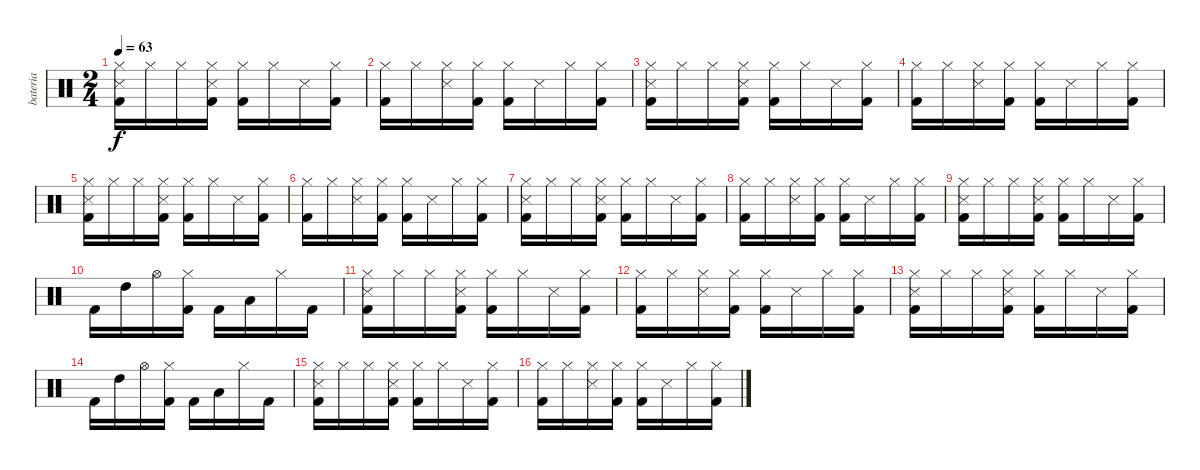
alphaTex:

\track ("bateria" "bateria") {instrument percussion}
\staff {score}
\articulation defaults
\ts (2 4)
\tempo 63
\clef neutral
\ks c
("Hi-Hat (closed)" "Snare (side stick) 3" "Kick (hit) 2").16{dy f} "Hi-Hat (closed)".16 "Hi-Hat (closed)".16 ("Hi-Hat (closed)" "Snare (side stick) 3" "Kick (hit) 2").16 ("Hi-Hat (closed)" "Kick (hit) 2").16 "Hi-Hat (closed)".16 "Snare (side stick) 3".16 ("Hi-Hat (closed)" "Kick (hit) 2").16 |
("Hi-Hat (closed)" "Kick (hit) 2").16 "Hi-Hat (closed)".16 ("Hi-Hat (closed)" "Snare (side stick) 3").16 ("Hi-Hat (closed)" "Kick (hit) 2").16 ("Hi-Hat (closed)" "Kick (hit) 2").16 "Snare (side stick) 3".16 "Hi-Hat (closed)".16 ("Hi-Hat (closed)" "Kick (hit) 2").16 |
("Hi-Hat (closed)" "Snare (side stick) 3" "Kick (hit) 2").16 "Hi-Hat (closed)".16 "Hi-Hat (closed)".16 ("Hi-Hat (closed)" "Snare (side stick) 3" "Kick (hit) 2").16 ("Hi-Hat (closed)" "Kick (hit) 2").16 "Hi-Hat (closed)".16 "Snare (side stick) 3".16 ("Hi-Hat (closed)" "Kick (hit) 2").16 |
("Hi-Hat (closed)" "Kick (hit) 2").16 "Hi-Hat (closed)".16 ("Hi-Hat (closed)" "Snare (side stick) 3").16 ("Hi-Hat (closed)" "Kick (hit) 2").16 ("Hi-Hat (closed)" "Kick (hit) 2").16 "Snare (side stick) 3".16 "Hi-Hat (closed)".16 ("Hi-Hat (closed)" "Kick (hit) 2").16 |
("Hi-Hat (closed)" "Snare (side stick) 3" "Kick (hit) 2").16 "Hi-Hat (closed)".16 "Hi-Hat (closed)".16 ("Hi-Hat (closed)" "Snare (side stick) 3" "Kick (hit) 2").16 ("Hi-Hat (closed)" "Kick (hit) 2").16 "Hi-Hat (closed)".16 "Snare (side stick) 3".16 ("Hi-Hat (closed)" "Kick (hit) 2").16 |
("Hi-Hat (closed)" "Kick (hit) 2").16 "Hi-Hat (closed)".16 ("Hi-Hat (closed)" "Snare (side stick) 3").16 ("Hi-Hat (closed)" "Kick (hit) 2").16 ("Hi-Hat (closed)" "Kick (hit) 2").16 "Snare (side stick) 3".16 "Hi-Hat (closed)".16 ("Hi-Hat (closed)" "Kick (hit) 2").16 |
("Hi-Hat (closed)" "Snare (side stick) 3" "Kick (hit) 2").16 "Hi-Hat (closed)".16 "Hi-Hat (closed)".16 ("Hi-Hat (closed)" "Snare (side stick) 3" "Kick (hit) 2").16 ("Hi-Hat (closed)" "Kick (hit) 2").16 "Hi-Hat (closed)".16 "Snare (side stick) 3".16 ("Hi-Hat (closed)" "Kick (hit) 2").16 |
("Hi-Hat (closed)" "Kick (hit) 2").16 "Hi-Hat (closed)".16 ("Hi-Hat (closed)" "Snare (side stick) 3").16 ("Hi-Hat (closed)" "Kick (hit) 2").16 ("Hi-Hat (closed)" "Kick (hit) 2").16 "Snare (side stick) 3".16 "Hi-Hat (closed)".16 ("Hi-Hat (closed)" "Kick (hit) 2").16 |
("Hi-Hat (closed)" "Snare (side stick) 3" "Kick (hit) 2").16 "Hi-Hat (closed)".16 "Hi-Hat (closed)".16 ("Hi-Hat (closed)" "Snare (side stick) 3" "Kick (hit) 2").16 ("Hi-Hat (closed)" "Kick (hit) 2").16 "Hi-Hat (closed)".16 "Snare (side stick) 3".16 ("Hi-Hat (closed)" "Kick (hit) 2").16 |
"Kick (hit) 2".16 "High Tom (hit)".16 "Hi-Hat (open)".16 ("Hi-Hat (closed)" "Kick (hit) 2").16 "Kick (hit) 2".16 "Low Tom (hit)".16 "Hi-Hat (closed)".16 "Kick (hit) 2".16 |
("Hi-Hat (closed)" "Snare (side stick) 3" "Kick (hit) 2").16 "Hi-Hat (closed)".16 "Hi-Hat (closed)".16 ("Hi-Hat (closed)" "Snare (side stick) 3" "Kick (hit) 2").16 ("Hi-Hat (closed)" "Kick (hit) 2").16 "Hi-Hat (closed)".16 "Snare (side stick) 3".16 ("Hi-Hat (closed)" "Kick (hit) 2").16 |
("Hi-Hat (closed)" "Kick (hit) 2").16 "Hi-Hat (closed)".16 ("Hi-Hat (closed)" "Snare (side stick) 3").16 ("Hi-Hat (closed)" "Kick (hit) 2").16 ("Hi-Hat (closed)" "Kick (hit) 2").16 "Snare (side stick) 3".16 "Hi-Hat (closed)".16 ("Hi-Hat (closed)" "Kick (hit) 2").16 |
("Hi-Hat (closed)" "Snare (side stick) 3" "Kick (hit) 2").16 "Hi-Hat (closed)".16 "Hi-Hat (closed)".16 ("Hi-Hat (closed)" "Snare (side stick) 3" "Kick (hit) 2").16 ("Hi-Hat (closed)" "Kick (hit) 2").16 "Hi-Hat (closed)".16 "Snare (side stick) 3".16 ("Hi-Hat (closed)" "Kick (hit) 2").16 |
"Kick (hit) 2".16 "High Tom (hit)".16 "Hi-Hat (open)".16 ("Hi-Hat (closed)" "Kick (hit) 2").16 "Kick (hit) 2".16 "Low Tom (hit)".16 "Hi-Hat (closed)".16 "Kick (hit) 2".16 |
("Hi-Hat (closed)" "Snare (side stick) 3" "Kick (hit) 2").16 "Hi-Hat (closed)".16 "Hi-Hat (closed)".16 ("Hi-Hat (closed)" "Snare (side stick) 3" "Kick (hit) 2").16 ("Hi-Hat (closed)" "Kick (hit) 2").16 "Hi-Hat (closed)".16 "Snare (side stick) 3".16 ("Hi-Hat (closed)" "Kick (hit) 2").16 |
("Hi-Hat (closed)" "Kick (hit) 2").16 "Hi-Hat (closed)".16 ("Hi-Hat (closed)" "Snare (side stick) 3").16 ("Hi-Hat (closed)" "Kick (hit) 2").16 ("Hi-Hat (closed)" "Kick (hit) 2").16 "Snare (side stick) 3".16 "Hi-Hat (closed)".16 ("Hi-Hat (closed)" "Kick (hit) 2").16
